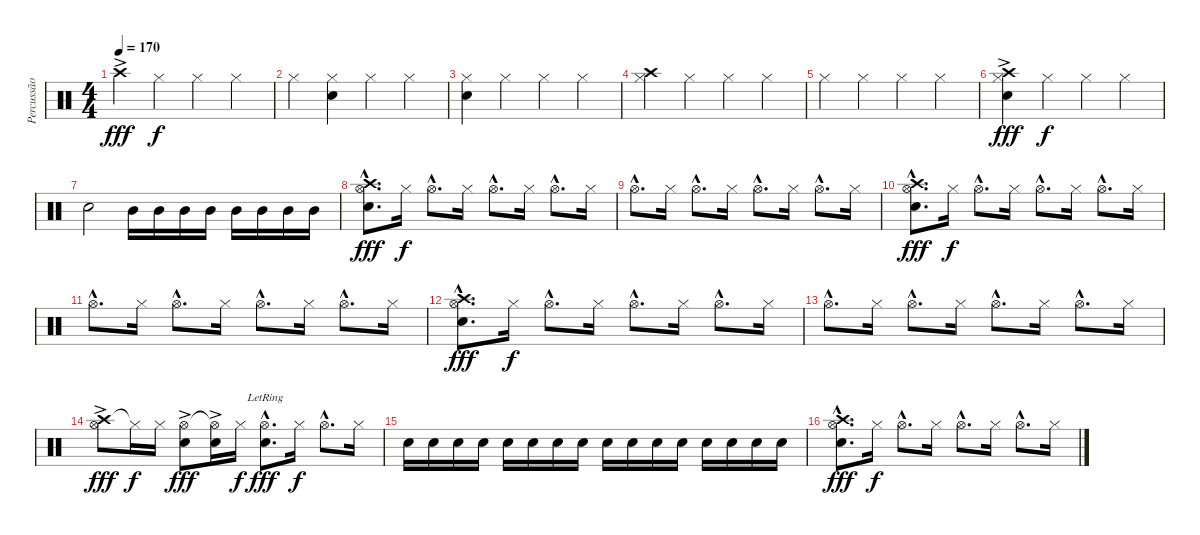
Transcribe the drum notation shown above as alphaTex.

\track ("Percussão" "Percussão") {instrument percussion}
\staff {score}
\articulation defaults
\ts (4 4)
\tempo 170
\clef neutral
\ks c "Crash high (hit)"{ac}.4{dy fff volume 9} "Hi-Hat (closed)".4{dy f} "Hi-Hat (closed)".4 "Hi-Hat (closed)".4
|
"Hi-Hat (closed)".4 ("Hi-Hat (closed)" "Snare (hit) 2").4 "Hi-Hat (closed)".4 "Hi-Hat (closed)".4 |
("Hi-Hat (closed)" "Snare (hit) 2").4 "Hi-Hat (closed)".4 "Hi-Hat (closed)".4 "Hi-Hat (closed)".4 |
("Crash high (hit)" "Hi-Hat (closed)").4 "Hi-Hat (closed)".4 "Hi-Hat (closed)".4 "Hi-Hat (closed)".4 |
"Hi-Hat (closed)".4 "Hi-Hat (closed)".4 "Hi-Hat (closed)".4 "Hi-Hat (closed)".4 |
("Crash high (hit)" "Snare (hit) 2"{ac} "Hi-Hat (closed)").4{dy fff} "Hi-Hat (closed)".4{dy f} "Hi-Hat (closed)".4 "Hi-Hat (closed)".4 |
"Snare (hit) 2".2 "Mid Tom (hit)".16 "Mid Tom (hit)".16 "Mid Tom (hit)".16 "Mid Tom (hit)".16 "Mid Tom (hit)".16 "Mid Tom (hit)".16 "Mid Tom (hit)".16 "Mid Tom (hit)".16 |
("Crash high (hit)"{hac} "Snare (hit) 2"{hac} "Hi-Hat (open)"{hac}).8{d dy fff} "Hi-Hat (closed)".16{dy f} "Hi-Hat (open)"{hac}.8{d} "Hi-Hat (closed)".16 "Hi-Hat (open)"{hac}.8{d} "Hi-Hat (closed)".16 "Hi-Hat (open)"{hac}.8{d} "Hi-Hat (closed)".16 |
"Hi-Hat (open)"{hac}.8{d} "Hi-Hat (closed)".16 "Hi-Hat (open)"{hac}.8{d} "Hi-Hat (closed)".16 "Hi-Hat (open)"{hac}.8{d} "Hi-Hat (closed)".16 "Hi-Hat (open)"{hac}.8{d} "Hi-Hat (closed)".16 |
("Crash high (hit)"{hac} "Snare (hit) 2"{hac} "Hi-Hat (open)"{hac}).8{d dy fff} "Hi-Hat (closed)".16{dy f} "Hi-Hat (open)"{hac}.8{d} "Hi-Hat (closed)".16 "Hi-Hat (open)"{hac}.8{d} "Hi-Hat (closed)".16 "Hi-Hat (open)"{hac}.8{d} "Hi-Hat (closed)".16 |
"Hi-Hat (open)"{hac}.8{d} "Hi-Hat (closed)".16 "Hi-Hat (open)"{hac}.8{d} "Hi-Hat (closed)".16 "Hi-Hat (open)"{hac}.8{d} "Hi-Hat (closed)".16 "Hi-Hat (open)"{hac}.8{d} "Hi-Hat (closed)".16 |
("Crash high (hit)"{hac} "Snare (hit) 2"{hac} "Hi-Hat (open)"{hac}).8{d dy fff} "Hi-Hat (closed)".16{dy f} "Hi-Hat (open)"{hac}.8{d} "Hi-Hat (closed)".16 "Hi-Hat (open)"{hac}.8{d} "Hi-Hat (closed)".16 "Hi-Hat (open)"{hac}.8{d} "Hi-Hat (closed)".16 |
"Hi-Hat (open)"{hac}.8{d} "Hi-Hat (closed)".16 "Hi-Hat (open)"{hac}.8{d} "Hi-Hat (closed)".16 "Hi-Hat (open)"{hac}.8{d} "Hi-Hat (closed)".16 "Hi-Hat (open)"{hac}.8{d} "Hi-Hat (closed)".16 |
("Crash high (hit)"{ac} "Hi-Hat (open)").8{dy fff} "Hi-Hat (closed)"{t}.16{dy f} "Hi-Hat (closed)".16 ("Snare (hit) 2"{ac} "Hi-Hat (open)").8{dy fff} ("Snare (hit) 2"{ac} "Hi-Hat (open)"{t}).16 "Hi-Hat (closed)".16{dy f} ("Snare (hit) 2"{hac lr} "Hi-Hat (open)"{hac}).8{d dy fff} "Hi-Hat (closed)".16{dy f} "Hi-Hat (open)"{hac}.8{d} "Hi-Hat (closed)".16 |
"Snare (hit) 2".16 "Snare (hit) 2".16 "Snare (hit) 2".16 "Snare (hit) 2".16 "Snare (hit) 2".16 "Snare (hit) 2".16 "Snare (hit) 2".16 "Snare (hit) 2".16 "Snare (hit) 2".16 "Snare (hit) 2".16 "Snare (hit) 2".16 "Snare (hit) 2".16 "Snare (hit) 2".16 "Snare (hit) 2".16 "Snare (hit) 2".16 "Snare (hit) 2".16 |
("Crash high (hit)"{hac} "Snare (hit) 2"{hac} "Hi-Hat (open)"{hac}).8{d dy fff} "Hi-Hat (closed)".16{dy f} "Hi-Hat (open)"{hac}.8{d} "Hi-Hat (closed)".16 "Hi-Hat (open)"{hac}.8{d} "Hi-Hat (closed)".16 "Hi-Hat (open)"{hac}.8{d} "Hi-Hat (closed)".16
